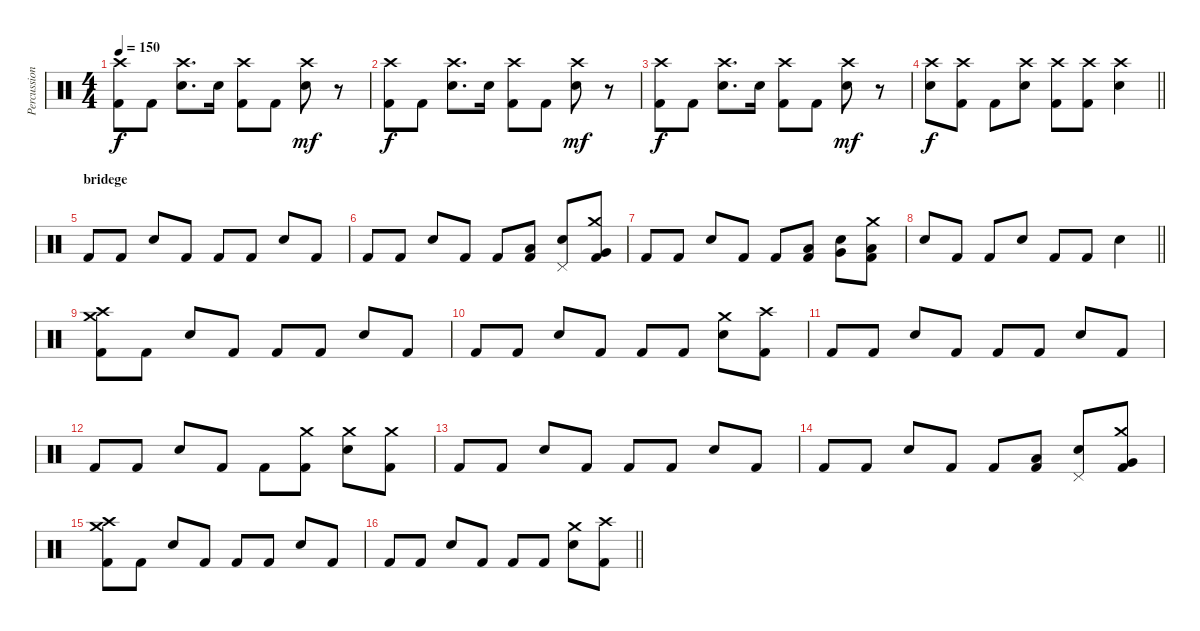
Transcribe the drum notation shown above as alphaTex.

\track ("Percussion" "Percussion") {instrument percussion}
\staff {score}
\articulation defaults
\ts (4 4)
\tempo 150
\clef neutral
\ks c
("Kick (hit) 2" "Crash high (hit)").8{dy f} "Kick (hit) 2".8 ("Electric Snare (hit)" "Crash high (hit)").8{d} "Electric Snare (hit)".16 ("Kick (hit) 2" "Crash high (hit)").8 "Kick (hit) 2".8 ("Electric Snare (hit)" "Crash high (hit)").8{dy mf} r.8 |
("Kick (hit) 2" "Crash high (hit)").8{dy f} "Kick (hit) 2".8 ("Electric Snare (hit)" "Crash high (hit)").8{d} "Electric Snare (hit)".16 ("Kick (hit) 2" "Crash high (hit)").8 "Kick (hit) 2".8 ("Electric Snare (hit)" "Crash high (hit)").8{dy mf} r.8 |
("Kick (hit) 2" "Crash high (hit)").8{dy f} "Kick (hit) 2".8 ("Electric Snare (hit)" "Crash high (hit)").8{d} "Electric Snare (hit)".16 ("Kick (hit) 2" "Crash high (hit)").8 "Kick (hit) 2".8 ("Electric Snare (hit)" "Crash high (hit)").8{dy mf} r.8 |
\barLineRight lightlight
("Electric Snare (hit)" "Crash high (hit)").8{dy f} ("Kick (hit) 2" "Crash high (hit)").8 "Kick (hit) 2".8 ("Electric Snare (hit)" "Crash high (hit)").8 ("Kick (hit) 2" "Crash high (hit)").8 ("Kick (hit) 2" "Crash high (hit)").8 ("Electric Snare (hit)" "Crash high (hit)").4 |
\section ("" "bridege")
"Kick (hit) 2".8 "Kick (hit) 2".8 "Electric Snare (hit)".8 "Kick (hit) 2".8 "Kick (hit) 2".8 "Kick (hit) 2".8 "Electric Snare (hit)".8 "Kick (hit) 2".8 |
"Kick (hit) 2".8 "Kick (hit) 2".8 "Electric Snare (hit)".8 "Kick (hit) 2".8 "Kick (hit) 2".8 ("Kick (hit) 2" "Low Tom (hit)").8 ("Electric Snare (hit)" "Pedal Hi-Hat (hit)").8 ("Kick (hit) 2" "Crash medium (hit)" "Very Low Tom (hit)").8 |
"Kick (hit) 2".8 "Kick (hit) 2".8 "Electric Snare (hit)".8 "Kick (hit) 2".8 "Kick (hit) 2".8 ("Kick (hit) 2" "Low Tom (hit)").8 ("Electric Snare (hit)" "Very Low Tom (hit)").8 ("Kick (hit) 2" "Crash medium (hit)" "Low Tom (hit)").8 |
\barLineRight lightlight "Electric Snare (hit)".8 "Kick (hit) 2".8 "Kick (hit) 2".8 "Electric Snare (hit)".8 "Kick (hit) 2".8 "Kick (hit) 2".8 "Electric Snare (hit)".4
|
("Kick (hit) 2" "Crash medium (hit)" "Crash high (hit)").8 "Kick (hit) 2".8 "Electric Snare (hit)".8 "Kick (hit) 2".8 "Kick (hit) 2".8 "Kick (hit) 2".8 "Electric Snare (hit)".8 "Kick (hit) 2".8 |
"Kick (hit) 2".8 "Kick (hit) 2".8 "Electric Snare (hit)".8 "Kick (hit) 2".8 "Kick (hit) 2".8 "Kick (hit) 2".8 ("Electric Snare (hit)" "Crash medium (hit)").8 ("Kick (hit) 2" "Crash high (hit)").8 |
"Kick (hit) 2".8 "Kick (hit) 2".8 "Electric Snare (hit)".8 "Kick (hit) 2".8 "Kick (hit) 2".8 "Kick (hit) 2".8 "Electric Snare (hit)".8 "Kick (hit) 2".8 |
"Kick (hit) 2".8 "Kick (hit) 2".8 "Electric Snare (hit)".8 "Kick (hit) 2".8 "Kick (hit) 2".8 ("Kick (hit) 2" "Crash medium (hit)").8 ("Electric Snare (hit)" "Crash medium (hit)").8 ("Kick (hit) 2" "Crash medium (hit)").8 |
"Kick (hit) 2".8 "Kick (hit) 2".8 "Electric Snare (hit)".8 "Kick (hit) 2".8 "Kick (hit) 2".8 "Kick (hit) 2".8 "Electric Snare (hit)".8 "Kick (hit) 2".8 |
"Kick (hit) 2".8 "Kick (hit) 2".8 "Electric Snare (hit)".8 "Kick (hit) 2".8 "Kick (hit) 2".8 ("Kick (hit) 2" "Low Tom (hit)").8 ("Electric Snare (hit)" "Pedal Hi-Hat (hit)").8 ("Kick (hit) 2" "Crash medium (hit)" "Very Low Tom (hit)").8 |
("Kick (hit) 2" "Crash medium (hit)" "Crash high (hit)").8 "Kick (hit) 2".8 "Electric Snare (hit)".8 "Kick (hit) 2".8 "Kick (hit) 2".8 "Kick (hit) 2".8 "Electric Snare (hit)".8 "Kick (hit) 2".8 |
\barLineRight lightlight "Kick (hit) 2".8 "Kick (hit) 2".8 "Electric Snare (hit)".8 "Kick (hit) 2".8 "Kick (hit) 2".8 "Kick (hit) 2".8
("Electric Snare (hit)" "Crash medium (hit)").8 ("Kick (hit) 2" "Crash high (hit)").8
